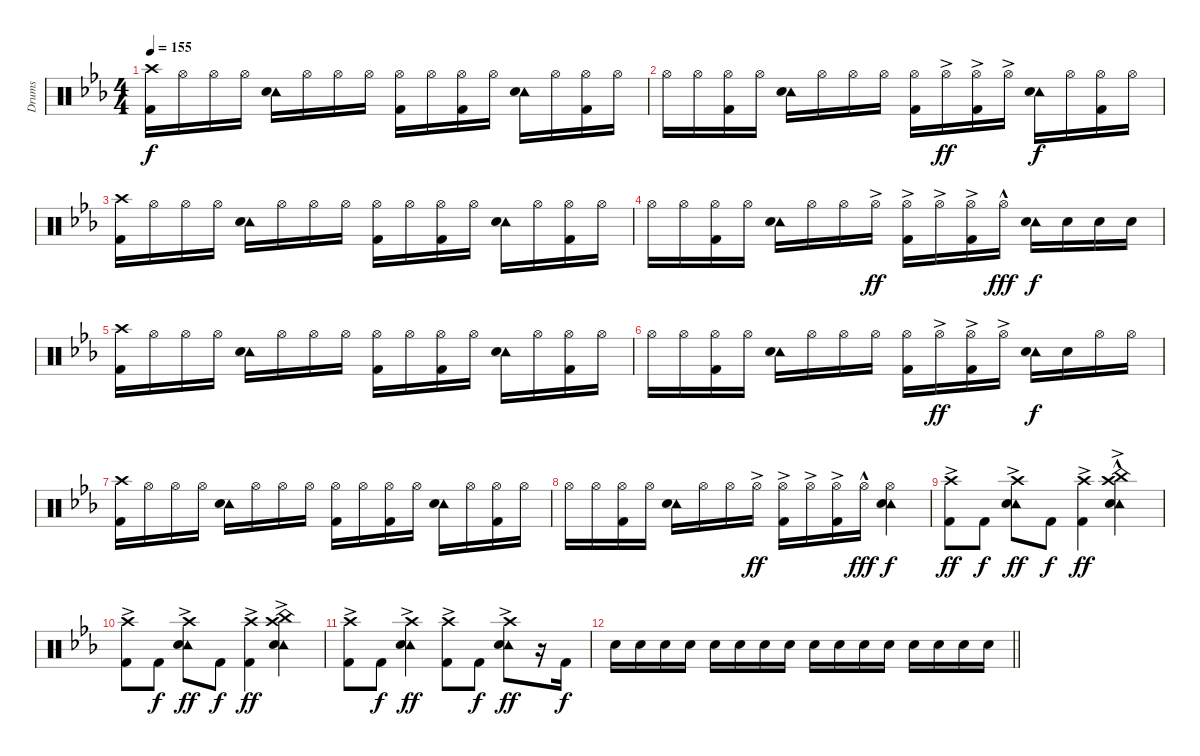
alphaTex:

\track ("Drums" "Drums") {instrument percussion}
\staff {score}
\articulation defaults
\ts (4 4)
\tempo 155
\clef neutral
\ks eb
("Crash high (hit)" "Kick (hit) 2").16{dy f} "Hi-Hat (open)".16 "Hi-Hat (open)".16 "Hi-Hat (open)".16 ("Tambourine (hit)" "Snare (hit) 2").16 "Hi-Hat (open)".16 "Hi-Hat (open)".16 "Hi-Hat (open)".16 ("Hi-Hat (open)" "Kick (hit) 2").16 "Hi-Hat (open)".16 ("Hi-Hat (open)" "Kick (hit) 2").16 "Hi-Hat (open)".16 ("Tambourine (hit)" "Snare (hit) 2").16 "Hi-Hat (open)".16 ("Hi-Hat (open)" "Kick (hit) 2").16 "Hi-Hat (open)".16 |
"Hi-Hat (open)".16 "Hi-Hat (open)".16 ("Hi-Hat (open)" "Kick (hit) 2").16 "Hi-Hat (open)".16 ("Tambourine (hit)" "Snare (hit) 2").16 "Hi-Hat (open)".16 "Hi-Hat (open)".16 "Hi-Hat (open)".16 ("Hi-Hat (open)" "Kick (hit) 2").16 "Hi-Hat (open)"{ac}.16{dy ff} ("Hi-Hat (open)"{ac} "Kick (hit) 2").16 "Hi-Hat (open)"{ac}.16 ("Tambourine (hit)" "Snare (hit) 2").16{dy f} "Hi-Hat (open)".16 ("Hi-Hat (open)" "Kick (hit) 2").16 "Hi-Hat (open)".16 |
("Crash high (hit)" "Kick (hit) 2").16 "Hi-Hat (open)".16 "Hi-Hat (open)".16 "Hi-Hat (open)".16 ("Tambourine (hit)" "Snare (hit) 2").16 "Hi-Hat (open)".16 "Hi-Hat (open)".16 "Hi-Hat (open)".16 ("Hi-Hat (open)" "Kick (hit) 2").16 "Hi-Hat (open)".16 ("Hi-Hat (open)" "Kick (hit) 2").16 "Hi-Hat (open)".16 ("Tambourine (hit)" "Snare (hit) 2").16 "Hi-Hat (open)".16 ("Hi-Hat (open)" "Kick (hit) 2").16 "Hi-Hat (open)".16 |
"Hi-Hat (open)".16 "Hi-Hat (open)".16 ("Hi-Hat (open)" "Kick (hit) 2").16 "Hi-Hat (open)".16 ("Tambourine (hit)" "Snare (hit) 2").16 "Hi-Hat (open)".16 "Hi-Hat (open)".16 "Hi-Hat (open)"{ac}.16{dy ff} ("Hi-Hat (open)"{ac} "Kick (hit) 2").16 "Hi-Hat (open)"{ac}.16 ("Hi-Hat (open)"{ac} "Kick (hit) 2").16 "Hi-Hat (open)"{hac}.16{dy fff} ("Tambourine (hit)" "Snare (hit) 2").16{dy f} "Snare (hit) 2".16 "Snare (hit) 2".16 "Snare (hit) 2".16 |
("Crash high (hit)" "Kick (hit) 2").16 "Hi-Hat (open)".16 "Hi-Hat (open)".16 "Hi-Hat (open)".16 ("Tambourine (hit)" "Snare (hit) 2").16 "Hi-Hat (open)".16 "Hi-Hat (open)".16 "Hi-Hat (open)".16 ("Hi-Hat (open)" "Kick (hit) 2").16 "Hi-Hat (open)".16 ("Hi-Hat (open)" "Kick (hit) 2").16 "Hi-Hat (open)".16 ("Tambourine (hit)" "Snare (hit) 2").16 "Hi-Hat (open)".16 ("Hi-Hat (open)" "Kick (hit) 2").16 "Hi-Hat (open)".16 |
"Hi-Hat (open)".16 "Hi-Hat (open)".16 ("Hi-Hat (open)" "Kick (hit) 2").16 "Hi-Hat (open)".16 ("Tambourine (hit)" "Snare (hit) 2").16 "Hi-Hat (open)".16 "Hi-Hat (open)".16 "Hi-Hat (open)".16 ("Hi-Hat (open)" "Kick (hit) 2").16 "Hi-Hat (open)"{ac}.16{dy ff} ("Hi-Hat (open)"{ac} "Kick (hit) 2").16 "Hi-Hat (open)"{ac}.16 ("Tambourine (hit)" "Snare (hit) 2").16{dy f} "Snare (hit) 2".16 "Hi-Hat (open)".16 "Hi-Hat (open)".16 |
("Crash high (hit)" "Kick (hit) 2").16 "Hi-Hat (open)".16 "Hi-Hat (open)".16 "Hi-Hat (open)".16 ("Tambourine (hit)" "Snare (hit) 2").16 "Hi-Hat (open)".16 "Hi-Hat (open)".16 "Hi-Hat (open)".16 ("Hi-Hat (open)" "Kick (hit) 2").16 "Hi-Hat (open)".16 ("Hi-Hat (open)" "Kick (hit) 2").16 "Hi-Hat (open)".16 ("Tambourine (hit)" "Snare (hit) 2").16 "Hi-Hat (open)".16 ("Hi-Hat (open)" "Kick (hit) 2").16 "Hi-Hat (open)".16 |
"Hi-Hat (open)".16 "Hi-Hat (open)".16 ("Hi-Hat (open)" "Kick (hit) 2").16 "Hi-Hat (open)".16 ("Tambourine (hit)" "Snare (hit) 2").16 "Hi-Hat (open)".16 "Hi-Hat (open)".16 "Hi-Hat (open)"{ac}.16{dy ff} ("Hi-Hat (open)"{ac} "Kick (hit) 2").16 "Hi-Hat (open)"{ac}.16 ("Hi-Hat (open)"{ac} "Kick (hit) 2").16 "Hi-Hat (open)"{hac}.16{dy fff} ("Tambourine (hit)" "Hi-Hat (open)" "Snare (hit) 2").4{dy f} |
("Crash high (hit)"{ac} "Kick (hit) 2").8{dy ff} "Kick (hit) 2".8{dy f} ("Tambourine (hit)" "Crash high (hit)"{ac} "Snare (hit) 2").8{dy ff} "Kick (hit) 2".8{dy f} ("Crash high (hit)"{ac} "Kick (hit) 2").4{dy ff} ("Tambourine (hit)" "China (hit)"{hac} "Crash high (hit)"{ac} "Snare (hit) 2").4 |
("Crash high (hit)"{ac} "Kick (hit) 2").8 "Kick (hit) 2".8{dy f} ("Tambourine (hit)" "Crash high (hit)"{ac} "Snare (hit) 2").8{dy ff} "Kick (hit) 2".8{dy f} ("Crash high (hit)"{ac} "Kick (hit) 2").4{dy ff} ("Tambourine (hit)" "China (hit)"{ac} "Crash high (hit)"{ac} "Snare (hit) 2").4 |
("Crash high (hit)"{ac} "Kick (hit) 2").8 "Kick (hit) 2".8{dy f} ("Tambourine (hit)" "Crash high (hit)"{ac} "Snare (hit) 2").4{dy ff} ("Crash high (hit)"{ac} "Kick (hit) 2").8 "Kick (hit) 2".8{dy f} ("Tambourine (hit)" "Crash high (hit)"{ac} "Snare (hit) 2").8{dy ff} r.16 "Kick (hit) 2".16{dy f} |
\barLineRight lightlight "Snare (hit) 2".16 "Snare (hit) 2".16 "Snare (hit) 2".16 "Snare (hit) 2".16 "Snare (hit) 2".16 "Snare (hit) 2".16 "Snare (hit) 2".16 "Snare (hit) 2".16 "Snare (hit) 2".16 "Snare (hit) 2".16 "Snare (hit) 2".16 "Snare (hit) 2".16 "Snare (hit) 2".16 "Snare (hit) 2".16 "Snare (hit) 2".16 "Snare (hit) 2".16
